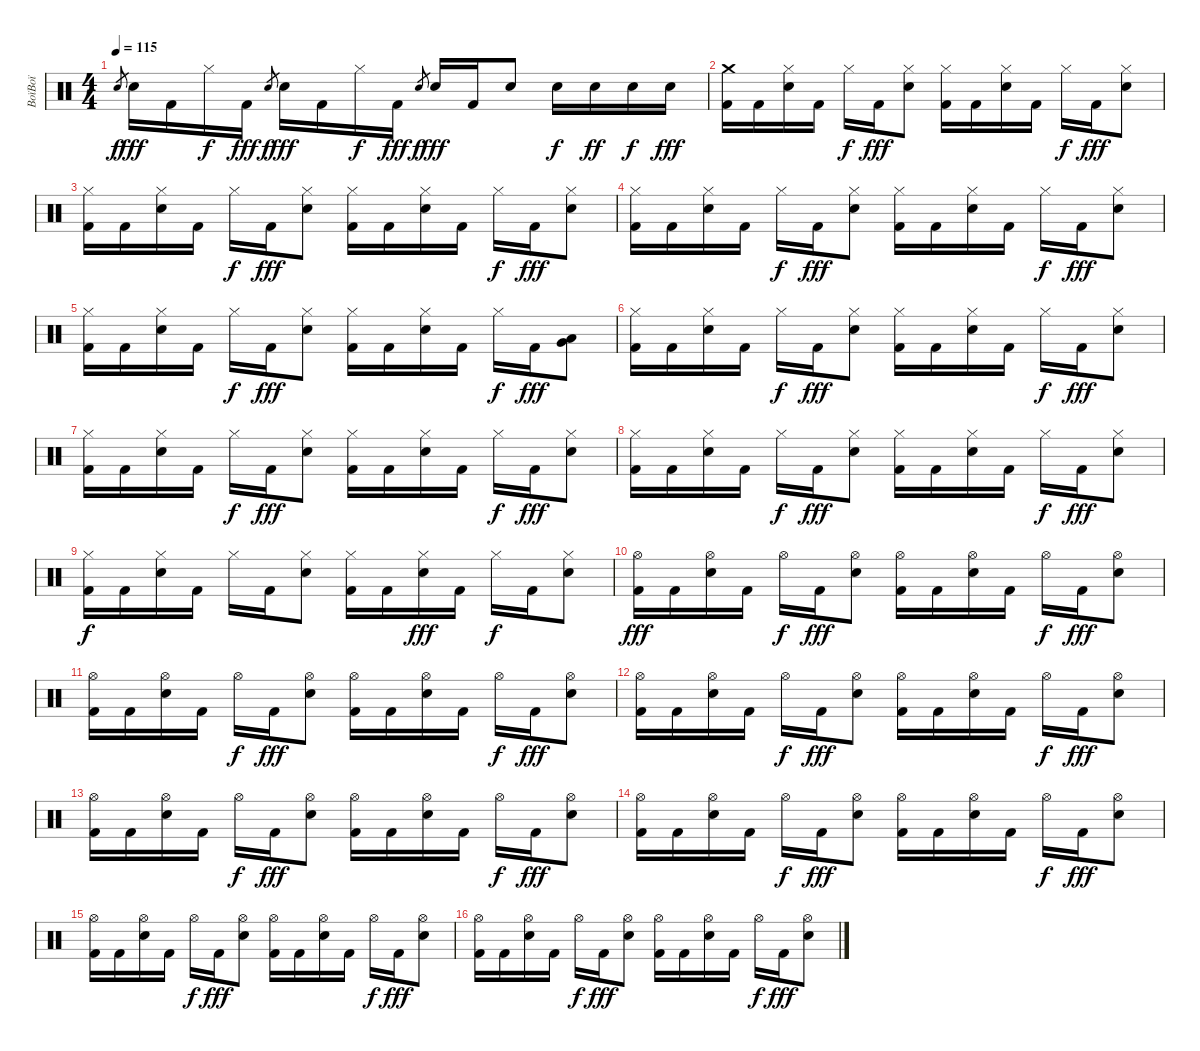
\track ("BoïBoï" "BoïBoï") {instrument percussion}
\staff {score}
\articulation defaults
\ts (4 4)
\tempo 115
\clef neutral
\ks c "Electric Snare (hit)".8{gr dy f} "Electric Snare (hit)".16{dy fff} "Kick (hit) 2".16 "Hi-Hat (closed)".16{dy f} "Kick (hit) 2".16{dy fff} "Electric Snare (hit)".8{gr dy f} "Electric Snare (hit)".16{dy fff} "Kick (hit) 2".16 "Hi-Hat (closed)".16{dy f} "Kick (hit) 2".16{dy fff} "Electric Snare (hit)".8{gr dy f} "Electric Snare (hit)".16{dy fff} "Kick (hit) 2".16 "Electric Snare (hit)".8 "Electric Snare (hit)".16{dy f} "Electric Snare (hit)".16{dy ff} "Electric Snare (hit)".16{dy f} "Electric Snare (hit)".16{dy fff}
|
("Crash medium (hit)" "Kick (hit) 2").16 "Kick (hit) 2".16 ("Hi-Hat (closed)" "Electric Snare (hit)").16 "Kick (hit) 2".16 "Hi-Hat (closed)".16{dy f} "Kick (hit) 2".16{dy fff} ("Hi-Hat (closed)" "Electric Snare (hit)").8 ("Hi-Hat (closed)" "Kick (hit) 2").16 "Kick (hit) 2".16 ("Hi-Hat (closed)" "Electric Snare (hit)").16 "Kick (hit) 2".16 "Hi-Hat (closed)".16{dy f} "Kick (hit) 2".16{dy fff} ("Hi-Hat (closed)" "Electric Snare (hit)").8 |
("Hi-Hat (closed)" "Kick (hit) 2").16 "Kick (hit) 2".16 ("Hi-Hat (closed)" "Electric Snare (hit)").16 "Kick (hit) 2".16 "Hi-Hat (closed)".16{dy f} "Kick (hit) 2".16{dy fff} ("Hi-Hat (closed)" "Electric Snare (hit)").8 ("Hi-Hat (closed)" "Kick (hit) 2").16 "Kick (hit) 2".16 ("Hi-Hat (closed)" "Electric Snare (hit)").16 "Kick (hit) 2".16 "Hi-Hat (closed)".16{dy f} "Kick (hit) 2".16{dy fff} ("Hi-Hat (closed)" "Electric Snare (hit)").8 |
("Hi-Hat (closed)" "Kick (hit) 2").16 "Kick (hit) 2".16 ("Hi-Hat (closed)" "Electric Snare (hit)").16 "Kick (hit) 2".16 "Hi-Hat (closed)".16{dy f} "Kick (hit) 2".16{dy fff} ("Hi-Hat (closed)" "Electric Snare (hit)").8 ("Hi-Hat (closed)" "Kick (hit) 2").16 "Kick (hit) 2".16 ("Hi-Hat (closed)" "Electric Snare (hit)").16 "Kick (hit) 2".16 "Hi-Hat (closed)".16{dy f} "Kick (hit) 2".16{dy fff} ("Hi-Hat (closed)" "Electric Snare (hit)").8 |
("Hi-Hat (closed)" "Kick (hit) 2").16 "Kick (hit) 2".16 ("Hi-Hat (closed)" "Electric Snare (hit)").16 "Kick (hit) 2".16 "Hi-Hat (closed)".16{dy f} "Kick (hit) 2".16{dy fff} ("Hi-Hat (closed)" "Electric Snare (hit)").8 ("Hi-Hat (closed)" "Kick (hit) 2").16 "Kick (hit) 2".16 ("Hi-Hat (closed)" "Electric Snare (hit)").16 "Kick (hit) 2".16 "Hi-Hat (closed)".16{dy f} "Kick (hit) 2".16{dy fff} ("Very Low Tom (hit)" "Low Floor Tom (hit)").8 |
("Hi-Hat (closed)" "Kick (hit) 2").16 "Kick (hit) 2".16 ("Hi-Hat (closed)" "Electric Snare (hit)").16 "Kick (hit) 2".16 "Hi-Hat (closed)".16{dy f} "Kick (hit) 2".16{dy fff} ("Hi-Hat (closed)" "Electric Snare (hit)").8 ("Hi-Hat (closed)" "Kick (hit) 2").16 "Kick (hit) 2".16 ("Hi-Hat (closed)" "Electric Snare (hit)").16 "Kick (hit) 2".16 "Hi-Hat (closed)".16{dy f} "Kick (hit) 2".16{dy fff} ("Hi-Hat (closed)" "Electric Snare (hit)").8 |
("Hi-Hat (closed)" "Kick (hit) 2").16 "Kick (hit) 2".16 ("Hi-Hat (closed)" "Electric Snare (hit)").16 "Kick (hit) 2".16 "Hi-Hat (closed)".16{dy f} "Kick (hit) 2".16{dy fff} ("Hi-Hat (closed)" "Electric Snare (hit)").8 ("Hi-Hat (closed)" "Kick (hit) 2").16 "Kick (hit) 2".16 ("Hi-Hat (closed)" "Electric Snare (hit)").16 "Kick (hit) 2".16 "Hi-Hat (closed)".16{dy f} "Kick (hit) 2".16{dy fff} ("Hi-Hat (closed)" "Electric Snare (hit)").8 |
("Hi-Hat (closed)" "Kick (hit) 2").16 "Kick (hit) 2".16 ("Hi-Hat (closed)" "Electric Snare (hit)").16 "Kick (hit) 2".16 "Hi-Hat (closed)".16{dy f} "Kick (hit) 2".16{dy fff} ("Hi-Hat (closed)" "Electric Snare (hit)").8 ("Hi-Hat (closed)" "Kick (hit) 2").16 "Kick (hit) 2".16 ("Hi-Hat (closed)" "Electric Snare (hit)").16 "Kick (hit) 2".16 "Hi-Hat (closed)".16{dy f} "Kick (hit) 2".16{dy fff} ("Hi-Hat (closed)" "Electric Snare (hit)").8 |
("Hi-Hat (closed)" "Kick (hit) 2").16{dy f} "Kick (hit) 2".16 ("Hi-Hat (closed)" "Electric Snare (hit)").16 "Kick (hit) 2".16 "Hi-Hat (closed)".16 "Kick (hit) 2".16 ("Hi-Hat (closed)" "Electric Snare (hit)").8 ("Hi-Hat (closed)" "Kick (hit) 2").16 "Kick (hit) 2".16 ("Hi-Hat (closed)" "Electric Snare (hit)").16{dy fff} "Kick (hit) 2".16 "Hi-Hat (closed)".16{dy f} "Kick (hit) 2".16 ("Hi-Hat (closed)" "Electric Snare (hit)").8 |
("Hi-Hat (open)" "Kick (hit) 2").16{dy fff} "Kick (hit) 2".16 ("Hi-Hat (open)" "Electric Snare (hit)").16 "Kick (hit) 2".16 "Hi-Hat (open)".16{dy f} "Kick (hit) 2".16{dy fff} ("Hi-Hat (open)" "Electric Snare (hit)").8 ("Hi-Hat (open)" "Kick (hit) 2").16 "Kick (hit) 2".16 ("Hi-Hat (open)" "Electric Snare (hit)").16 "Kick (hit) 2".16 "Hi-Hat (open)".16{dy f} "Kick (hit) 2".16{dy fff} ("Hi-Hat (open)" "Electric Snare (hit)").8 |
("Hi-Hat (open)" "Kick (hit) 2").16 "Kick (hit) 2".16 ("Hi-Hat (open)" "Electric Snare (hit)").16 "Kick (hit) 2".16 "Hi-Hat (open)".16{dy f} "Kick (hit) 2".16{dy fff} ("Hi-Hat (open)" "Electric Snare (hit)").8 ("Hi-Hat (open)" "Kick (hit) 2").16 "Kick (hit) 2".16 ("Hi-Hat (open)" "Electric Snare (hit)").16 "Kick (hit) 2".16 "Hi-Hat (open)".16{dy f} "Kick (hit) 2".16{dy fff} ("Hi-Hat (open)" "Electric Snare (hit)").8 |
("Hi-Hat (open)" "Kick (hit) 2").16 "Kick (hit) 2".16 ("Hi-Hat (open)" "Electric Snare (hit)").16 "Kick (hit) 2".16 "Hi-Hat (open)".16{dy f} "Kick (hit) 2".16{dy fff} ("Hi-Hat (open)" "Electric Snare (hit)").8 ("Hi-Hat (open)" "Kick (hit) 2").16 "Kick (hit) 2".16 ("Hi-Hat (open)" "Electric Snare (hit)").16 "Kick (hit) 2".16 "Hi-Hat (open)".16{dy f} "Kick (hit) 2".16{dy fff} ("Hi-Hat (open)" "Electric Snare (hit)").8 |
("Hi-Hat (open)" "Kick (hit) 2").16 "Kick (hit) 2".16 ("Hi-Hat (open)" "Electric Snare (hit)").16 "Kick (hit) 2".16 "Hi-Hat (open)".16{dy f} "Kick (hit) 2".16{dy fff} ("Hi-Hat (open)" "Electric Snare (hit)").8 ("Hi-Hat (open)" "Kick (hit) 2").16 "Kick (hit) 2".16 ("Hi-Hat (open)" "Electric Snare (hit)").16 "Kick (hit) 2".16 "Hi-Hat (open)".16{dy f} "Kick (hit) 2".16{dy fff} ("Hi-Hat (open)" "Electric Snare (hit)").8 |
("Hi-Hat (open)" "Kick (hit) 2").16 "Kick (hit) 2".16 ("Hi-Hat (open)" "Electric Snare (hit)").16 "Kick (hit) 2".16 "Hi-Hat (open)".16{dy f} "Kick (hit) 2".16{dy fff} ("Hi-Hat (open)" "Electric Snare (hit)").8 ("Hi-Hat (open)" "Kick (hit) 2").16 "Kick (hit) 2".16 ("Hi-Hat (open)" "Electric Snare (hit)").16 "Kick (hit) 2".16 "Hi-Hat (open)".16{dy f} "Kick (hit) 2".16{dy fff} ("Hi-Hat (open)" "Electric Snare (hit)").8 |
("Hi-Hat (open)" "Kick (hit) 2").16 "Kick (hit) 2".16 ("Hi-Hat (open)" "Electric Snare (hit)").16 "Kick (hit) 2".16 "Hi-Hat (open)".16{dy f} "Kick (hit) 2".16{dy fff} ("Hi-Hat (open)" "Electric Snare (hit)").8 ("Hi-Hat (open)" "Kick (hit) 2").16 "Kick (hit) 2".16 ("Hi-Hat (open)" "Electric Snare (hit)").16 "Kick (hit) 2".16 "Hi-Hat (open)".16{dy f} "Kick (hit) 2".16{dy fff} ("Hi-Hat (open)" "Electric Snare (hit)").8 |
("Hi-Hat (open)" "Kick (hit) 2").16 "Kick (hit) 2".16 ("Hi-Hat (open)" "Electric Snare (hit)").16 "Kick (hit) 2".16 "Hi-Hat (open)".16{dy f} "Kick (hit) 2".16{dy fff} ("Hi-Hat (open)" "Electric Snare (hit)").8 ("Hi-Hat (open)" "Kick (hit) 2").16 "Kick (hit) 2".16 ("Hi-Hat (open)" "Electric Snare (hit)").16 "Kick (hit) 2".16 "Hi-Hat (open)".16{dy f} "Kick (hit) 2".16{dy fff} ("Hi-Hat (open)" "Electric Snare (hit)").8
